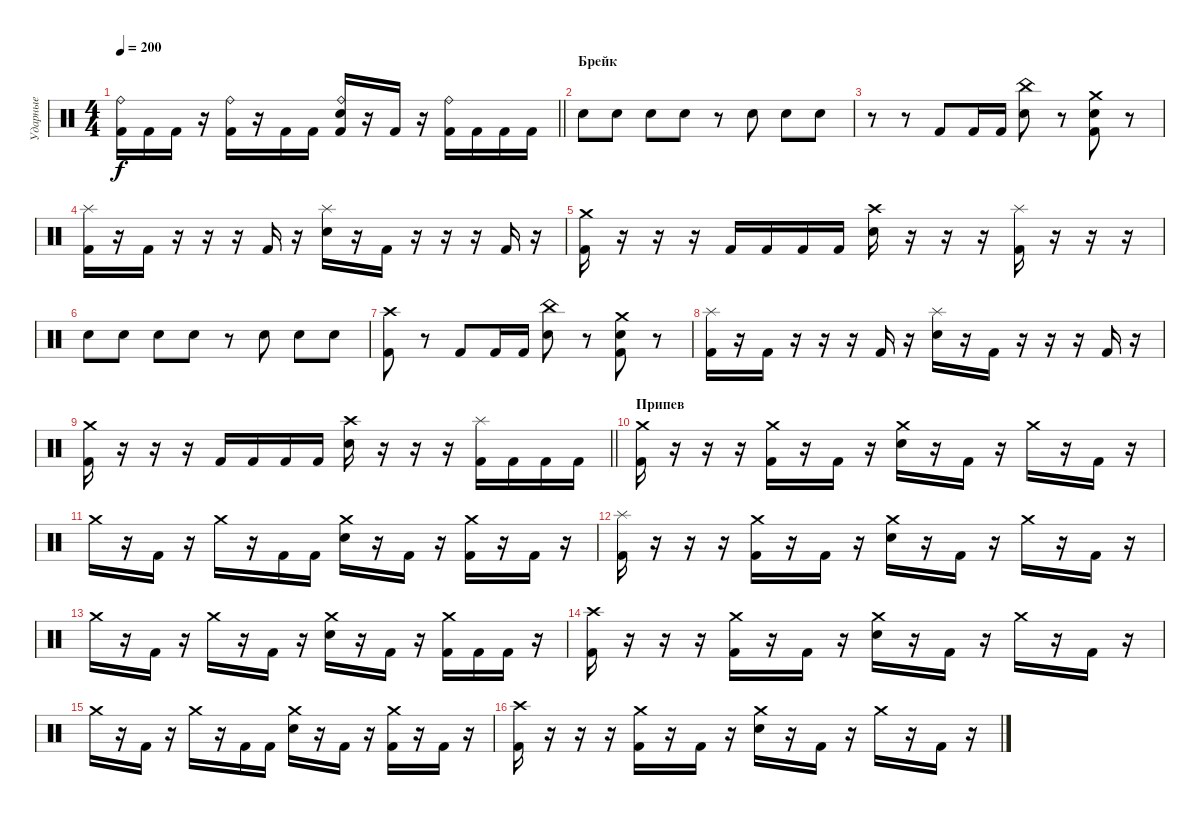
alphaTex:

\track ("Ударные" "Ударные") {instrument percussion}
\staff {score}
\articulation defaults
\ts (4 4)
\tempo 200
\clef neutral
\barLineRight lightlight
\ks c
("Kick (hit) 2" "Ride (bell)").16{dy f} "Kick (hit) 2".16 "Kick (hit) 2".16 r.16 ("Kick (hit) 2" "Ride (bell)").16 r.16 "Kick (hit) 2".16 "Kick (hit) 2".16 ("Kick (hit) 2" "Electric Snare (hit)" "Ride (bell)").16 r.16 "Kick (hit) 2".16 r.16 ("Kick (hit) 2" "Ride (bell)").16 "Kick (hit) 2".16 "Kick (hit) 2".16 "Kick (hit) 2".16 |
\section ("" "Брейк")
"Electric Snare (hit)".8 "Electric Snare (hit)".8 "Electric Snare (hit)".8 "Electric Snare (hit)".8 r.8 "Electric Snare (hit)".8 "Electric Snare (hit)".8 "Electric Snare (hit)".8 |
r.8 r.8 "Kick (hit) 2".8 "Kick (hit) 2".16 "Kick (hit) 2".16 ("Electric Snare (hit)" "China (hit)").8 r.8 ("Kick (hit) 2" "Electric Snare (hit)" "Crash medium (hit)").8 r.8 |
("Kick (hit) 2" "Splash (hit)").16 r.16 "Kick (hit) 2".16 r.16 r.16 r.16 "Kick (hit) 2".16 r.16 ("Electric Snare (hit)" "Splash (hit)").16 r.16 "Kick (hit) 2".16 r.16 r.16 r.16 "Kick (hit) 2".16 r.16 |
("Kick (hit) 2" "Crash medium (hit)").16 r.16 r.16 r.16 "Kick (hit) 2".16 "Kick (hit) 2".16 "Kick (hit) 2".16 "Kick (hit) 2".16 ("Electric Snare (hit)" "Crash high (hit)").16 r.16 r.16 r.16 ("Kick (hit) 2" "Splash (hit)").16 r.16 r.16 r.16 |
"Electric Snare (hit)".8 "Electric Snare (hit)".8 "Electric Snare (hit)".8 "Electric Snare (hit)".8 r.8 "Electric Snare (hit)".8 "Electric Snare (hit)".8 "Electric Snare (hit)".8 |
("Kick (hit) 2" "Crash high (hit)").8 r.8 "Kick (hit) 2".8 "Kick (hit) 2".16 "Kick (hit) 2".16 ("Electric Snare (hit)" "China (hit)").8 r.8 ("Kick (hit) 2" "Electric Snare (hit)" "Crash medium (hit)").8 r.8 |
("Kick (hit) 2" "Splash (hit)").16 r.16 "Kick (hit) 2".16 r.16 r.16 r.16 "Kick (hit) 2".16 r.16 ("Electric Snare (hit)" "Splash (hit)").16 r.16 "Kick (hit) 2".16 r.16 r.16 r.16 "Kick (hit) 2".16 r.16 |
\barLineRight lightlight
("Kick (hit) 2" "Crash medium (hit)").16 r.16 r.16 r.16 "Kick (hit) 2".16 "Kick (hit) 2".16 "Kick (hit) 2".16 "Kick (hit) 2".16 ("Electric Snare (hit)" "Crash high (hit)").16 r.16 r.16 r.16 ("Kick (hit) 2" "Splash (hit)").16 "Kick (hit) 2".16 "Kick (hit) 2".16 "Kick (hit) 2".16 |
\section ("" "Припев")
("Kick (hit) 2" "Crash medium (hit)").16 r.16 r.16 r.16 ("Kick (hit) 2" "Crash medium (hit)").16 r.16 "Kick (hit) 2".16 r.16 ("Electric Snare (hit)" "Crash medium (hit)").16 r.16 "Kick (hit) 2".16 r.16 "Crash medium (hit)".16 r.16 "Kick (hit) 2".16 r.16 |
"Crash medium (hit)".16 r.16 "Kick (hit) 2".16 r.16 "Crash medium (hit)".16 r.16 "Kick (hit) 2".16 "Kick (hit) 2".16 ("Electric Snare (hit)" "Crash medium (hit)").16 r.16 "Kick (hit) 2".16 r.16 ("Kick (hit) 2" "Crash medium (hit)").16 r.16 "Kick (hit) 2".16 r.16 |
("Kick (hit) 2" "Splash (hit)").16 r.16 r.16 r.16 ("Kick (hit) 2" "Crash medium (hit)").16 r.16 "Kick (hit) 2".16 r.16 ("Electric Snare (hit)" "Crash medium (hit)").16 r.16 "Kick (hit) 2".16 r.16 "Crash medium (hit)".16 r.16 "Kick (hit) 2".16 r.16 |
"Crash medium (hit)".16 r.16 "Kick (hit) 2".16 r.16 "Crash medium (hit)".16 r.16 "Kick (hit) 2".16 r.16 ("Electric Snare (hit)" "Crash medium (hit)").16 r.16 "Kick (hit) 2".16 r.16 ("Kick (hit) 2" "Crash medium (hit)").16 "Kick (hit) 2".16 "Kick (hit) 2".16 r.16 |
("Kick (hit) 2" "Crash high (hit)").16 r.16 r.16 r.16 ("Kick (hit) 2" "Crash medium (hit)").16 r.16 "Kick (hit) 2".16 r.16 ("Electric Snare (hit)" "Crash medium (hit)").16 r.16 "Kick (hit) 2".16 r.16 "Crash medium (hit)".16 r.16 "Kick (hit) 2".16 r.16 |
"Crash medium (hit)".16 r.16 "Kick (hit) 2".16 r.16 "Crash medium (hit)".16 r.16 "Kick (hit) 2".16 "Kick (hit) 2".16 ("Electric Snare (hit)" "Crash medium (hit)").16 r.16 "Kick (hit) 2".16 r.16 ("Kick (hit) 2" "Crash medium (hit)").16 r.16 "Kick (hit) 2".16 r.16 |
("Kick (hit) 2" "Crash high (hit)").16 r.16 r.16 r.16 ("Kick (hit) 2" "Crash medium (hit)").16 r.16 "Kick (hit) 2".16 r.16 ("Electric Snare (hit)" "Crash medium (hit)").16 r.16 "Kick (hit) 2".16 r.16 "Crash medium (hit)".16 r.16 "Kick (hit) 2".16 r.16
